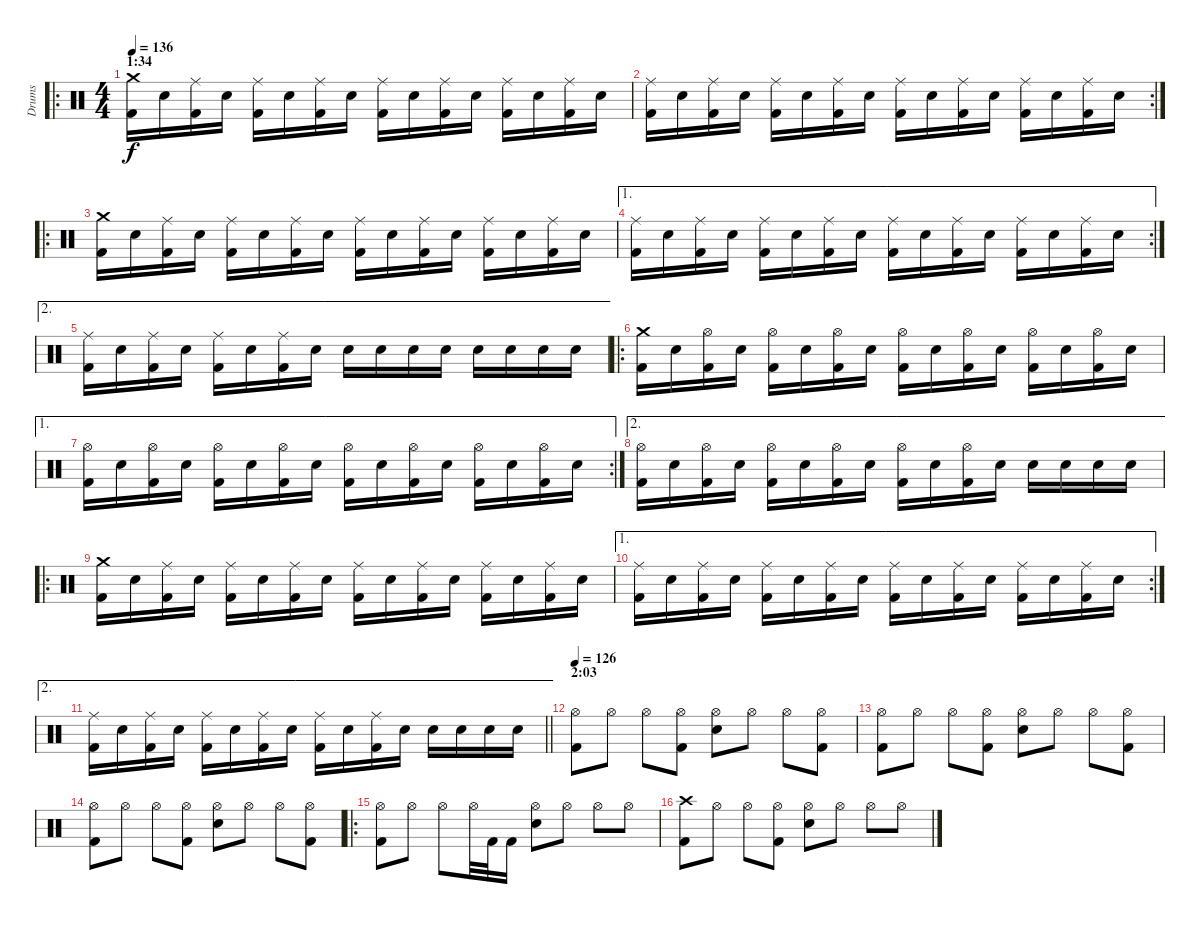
\track ("Drums" "Drums") {instrument percussion}
\staff {score}
\articulation defaults
\ro
\ts (4 4)
\section ("" "1:34")
\tempo 136
\clef neutral
\ks c
("Crash medium (hit)" "Kick (hit) 2").16{dy f} "Electric Snare (hit)".16 ("Ride (middle)" "Kick (hit) 2").16 "Electric Snare (hit)".16 ("Ride (middle)" "Kick (hit) 2").16 "Electric Snare (hit)".16 ("Ride (middle)" "Kick (hit) 2").16 "Electric Snare (hit)".16 ("Ride (middle)" "Kick (hit) 2").16 "Electric Snare (hit)".16 ("Ride (middle)" "Kick (hit) 2").16 "Electric Snare (hit)".16 ("Ride (middle)" "Kick (hit) 2").16 "Electric Snare (hit)".16 ("Ride (middle)" "Kick (hit) 2").16 "Electric Snare (hit)".16 |
\rc 2
("Ride (middle)" "Kick (hit) 2").16 "Electric Snare (hit)".16 ("Ride (middle)" "Kick (hit) 2").16 "Electric Snare (hit)".16 ("Ride (middle)" "Kick (hit) 2").16 "Electric Snare (hit)".16 ("Ride (middle)" "Kick (hit) 2").16 "Electric Snare (hit)".16 ("Ride (middle)" "Kick (hit) 2").16 "Electric Snare (hit)".16 ("Ride (middle)" "Kick (hit) 2").16 "Electric Snare (hit)".16 ("Ride (middle)" "Kick (hit) 2").16 "Electric Snare (hit)".16 ("Ride (middle)" "Kick (hit) 2").16 "Electric Snare (hit)".16 |
\ro
("Crash medium (hit)" "Kick (hit) 2").16 "Electric Snare (hit)".16 ("Ride (middle)" "Kick (hit) 2").16 "Electric Snare (hit)".16 ("Ride (middle)" "Kick (hit) 2").16 "Electric Snare (hit)".16 ("Ride (middle)" "Kick (hit) 2").16 "Electric Snare (hit)".16 ("Ride (middle)" "Kick (hit) 2").16 "Electric Snare (hit)".16 ("Ride (middle)" "Kick (hit) 2").16 "Electric Snare (hit)".16 ("Ride (middle)" "Kick (hit) 2").16 "Electric Snare (hit)".16 ("Ride (middle)" "Kick (hit) 2").16 "Electric Snare (hit)".16 |
\ae 1
\rc 2
("Ride (middle)" "Kick (hit) 2").16 "Electric Snare (hit)".16 ("Ride (middle)" "Kick (hit) 2").16 "Electric Snare (hit)".16 ("Ride (middle)" "Kick (hit) 2").16 "Electric Snare (hit)".16 ("Ride (middle)" "Kick (hit) 2").16 "Electric Snare (hit)".16 ("Ride (middle)" "Kick (hit) 2").16 "Electric Snare (hit)".16 ("Ride (middle)" "Kick (hit) 2").16 "Electric Snare (hit)".16 ("Ride (middle)" "Kick (hit) 2").16 "Electric Snare (hit)".16 ("Ride (middle)" "Kick (hit) 2").16 "Electric Snare (hit)".16 |
\ae 2
("Ride (middle)" "Kick (hit) 2").16 "Electric Snare (hit)".16 ("Ride (middle)" "Kick (hit) 2").16 "Electric Snare (hit)".16 ("Ride (middle)" "Kick (hit) 2").16 "Electric Snare (hit)".16 ("Ride (middle)" "Kick (hit) 2").16 "Electric Snare (hit)".16 "Electric Snare (hit)".16 "Electric Snare (hit)".16 "Electric Snare (hit)".16 "Electric Snare (hit)".16 "Electric Snare (hit)".16 "Electric Snare (hit)".16 "Electric Snare (hit)".16 "Electric Snare (hit)".16 |
\ro
("Crash medium (hit)" "Kick (hit) 2").16 "Electric Snare (hit)".16 ("Hi-Hat (open)" "Kick (hit) 2").16 "Electric Snare (hit)".16 ("Hi-Hat (open)" "Kick (hit) 2").16 "Electric Snare (hit)".16 ("Hi-Hat (open)" "Kick (hit) 2").16 "Electric Snare (hit)".16 ("Hi-Hat (open)" "Kick (hit) 2").16 "Electric Snare (hit)".16 ("Hi-Hat (open)" "Kick (hit) 2").16 "Electric Snare (hit)".16 ("Hi-Hat (open)" "Kick (hit) 2").16 "Electric Snare (hit)".16 ("Hi-Hat (open)" "Kick (hit) 2").16 "Electric Snare (hit)".16 |
\ae 1
\rc 2
("Hi-Hat (open)" "Kick (hit) 2").16 "Electric Snare (hit)".16 ("Hi-Hat (open)" "Kick (hit) 2").16 "Electric Snare (hit)".16 ("Hi-Hat (open)" "Kick (hit) 2").16 "Electric Snare (hit)".16 ("Hi-Hat (open)" "Kick (hit) 2").16 "Electric Snare (hit)".16 ("Hi-Hat (open)" "Kick (hit) 2").16 "Electric Snare (hit)".16 ("Hi-Hat (open)" "Kick (hit) 2").16 "Electric Snare (hit)".16 ("Hi-Hat (open)" "Kick (hit) 2").16 "Electric Snare (hit)".16 ("Hi-Hat (open)" "Kick (hit) 2").16 "Electric Snare (hit)".16 |
\ae 2
("Hi-Hat (open)" "Kick (hit) 2").16 "Electric Snare (hit)".16 ("Hi-Hat (open)" "Kick (hit) 2").16 "Electric Snare (hit)".16 ("Hi-Hat (open)" "Kick (hit) 2").16 "Electric Snare (hit)".16 ("Hi-Hat (open)" "Kick (hit) 2").16 "Electric Snare (hit)".16 ("Hi-Hat (open)" "Kick (hit) 2").16 "Electric Snare (hit)".16 ("Hi-Hat (open)" "Kick (hit) 2").16 "Electric Snare (hit)".16 "Electric Snare (hit)".16 "Electric Snare (hit)".16 "Electric Snare (hit)".16 "Electric Snare (hit)".16 |
\ro
("Crash medium (hit)" "Kick (hit) 2").16 "Electric Snare (hit)".16 ("Ride (middle)" "Kick (hit) 2").16 "Electric Snare (hit)".16 ("Ride (middle)" "Kick (hit) 2").16 "Electric Snare (hit)".16 ("Ride (middle)" "Kick (hit) 2").16 "Electric Snare (hit)".16 ("Ride (middle)" "Kick (hit) 2").16 "Electric Snare (hit)".16 ("Ride (middle)" "Kick (hit) 2").16 "Electric Snare (hit)".16 ("Ride (middle)" "Kick (hit) 2").16 "Electric Snare (hit)".16 ("Ride (middle)" "Kick (hit) 2").16 "Electric Snare (hit)".16 |
\ae 1
\rc 2
("Ride (middle)" "Kick (hit) 2").16 "Electric Snare (hit)".16 ("Ride (middle)" "Kick (hit) 2").16 "Electric Snare (hit)".16 ("Ride (middle)" "Kick (hit) 2").16 "Electric Snare (hit)".16 ("Ride (middle)" "Kick (hit) 2").16 "Electric Snare (hit)".16 ("Ride (middle)" "Kick (hit) 2").16 "Electric Snare (hit)".16 ("Ride (middle)" "Kick (hit) 2").16 "Electric Snare (hit)".16 ("Ride (middle)" "Kick (hit) 2").16 "Electric Snare (hit)".16 ("Ride (middle)" "Kick (hit) 2").16 "Electric Snare (hit)".16 |
\ae 2
\barLineRight lightlight
("Ride (middle)" "Kick (hit) 2").16 "Electric Snare (hit)".16 ("Ride (middle)" "Kick (hit) 2").16 "Electric Snare (hit)".16 ("Ride (middle)" "Kick (hit) 2").16 "Electric Snare (hit)".16 ("Ride (middle)" "Kick (hit) 2").16 "Electric Snare (hit)".16 ("Ride (middle)" "Kick (hit) 2").16 "Electric Snare (hit)".16 ("Ride (middle)" "Kick (hit) 2").16 "Electric Snare (hit)".16 "Electric Snare (hit)".16 "Electric Snare (hit)".16 "Electric Snare (hit)".16 "Electric Snare (hit)".16 |
\section ("" "2:03")
\tempo 126
("Hi-Hat (open)" "Kick (hit) 2").8 "Hi-Hat (open)".8 "Hi-Hat (open)".8 ("Hi-Hat (open)" "Kick (hit) 2").8 ("Hi-Hat (open)" "Electric Snare (hit)").8 "Hi-Hat (open)".8 "Hi-Hat (open)".8 ("Hi-Hat (open)" "Kick (hit) 2").8 |
("Hi-Hat (open)" "Kick (hit) 2").8 "Hi-Hat (open)".8 "Hi-Hat (open)".8 ("Hi-Hat (open)" "Kick (hit) 2").8 ("Hi-Hat (open)" "Electric Snare (hit)").8 "Hi-Hat (open)".8 "Hi-Hat (open)".8 ("Hi-Hat (open)" "Kick (hit) 2").8 |
("Hi-Hat (open)" "Kick (hit) 2").8 "Hi-Hat (open)".8 "Hi-Hat (open)".8 ("Hi-Hat (open)" "Kick (hit) 2").8 ("Hi-Hat (open)" "Electric Snare (hit)").8 "Hi-Hat (open)".8 "Hi-Hat (open)".8 ("Hi-Hat (open)" "Kick (hit) 2").8 |
\ro
("Hi-Hat (open)" "Kick (hit) 2").8 "Hi-Hat (open)".8 "Hi-Hat (open)".8 "Hi-Hat (open)".32 "Kick (hit) 2".32 "Kick (hit) 2".16 ("Hi-Hat (open)" "Electric Snare (hit)").8 "Hi-Hat (open)".8 "Hi-Hat (open)".8 "Hi-Hat (open)".8 |
("Crash high (hit)" "Kick (hit) 2").8 "Hi-Hat (open)".8 "Hi-Hat (open)".8 ("Hi-Hat (open)" "Kick (hit) 2").8 ("Hi-Hat (open)" "Electric Snare (hit)").8 "Hi-Hat (open)".8 "Hi-Hat (open)".8 "Hi-Hat (open)".8
